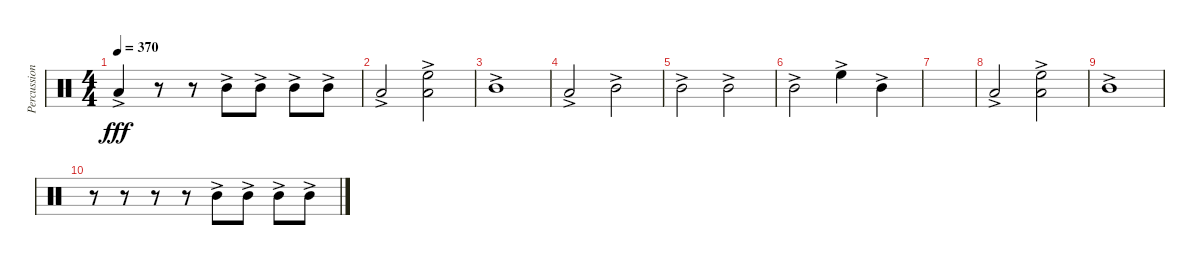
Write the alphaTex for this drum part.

\track ("Percussions" "Percussion") {instrument percussion}
\staff {score}
\articulation defaults
\ts (4 4)
\tempo 370
\clef neutral
\ks c "Low Tom (hit)"{ac}.4{dy fff}
r.8 r.8 "Mid Tom (hit)"{ac}.8 "Mid Tom (hit)"{ac}.8 "Mid Tom (hit)"{ac}.8 "Mid Tom (hit)"{ac}.8 |
"Low Tom (hit)"{ac}.2 ("Low Tom (hit)"{ac} "High Floor Tom (hit)"{ac}).2 |
"Mid Tom (hit)"{ac}.1 |
"Low Tom (hit)"{ac}.2 "Mid Tom (hit)"{ac}.2 |
"Mid Tom (hit)"{ac}.2 "Mid Tom (hit)"{ac}.2 |
"Mid Tom (hit)"{ac}.2 "High Floor Tom (hit)"{ac}.4 "Mid Tom (hit)"{ac}.4 |
|
"Low Tom (hit)"{ac}.2 ("Low Tom (hit)"{ac} "High Floor Tom (hit)"{ac}).2 |
"Mid Tom (hit)"{ac}.1 |
r.8 r.8 r.8 r.8 "Mid Tom (hit)"{ac}.8 "Mid Tom (hit)"{ac}.8 "Mid Tom (hit)"{ac}.8 "Mid Tom (hit)"{ac}.8
